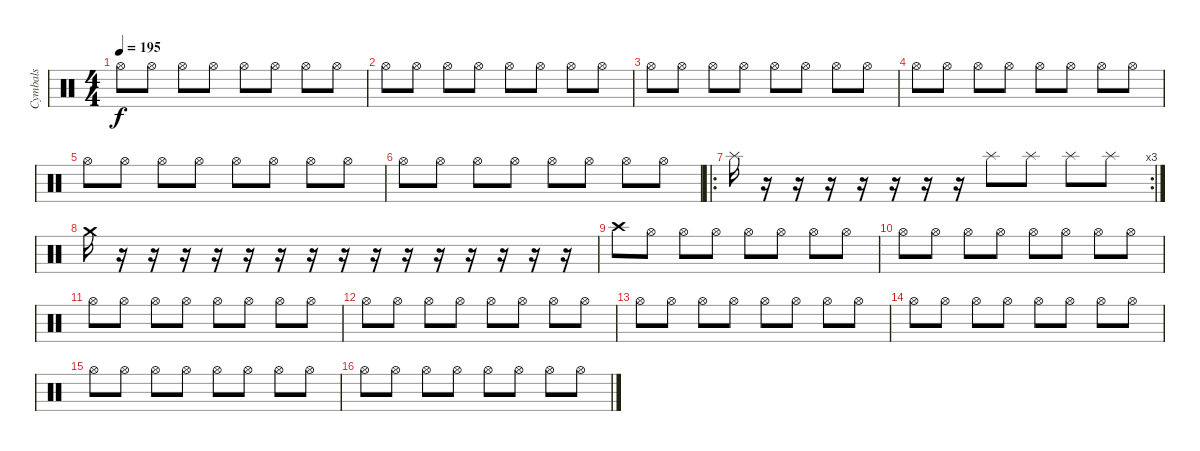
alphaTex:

\track ("Cymbals" "Cymbals") {instrument percussion}
\staff {score}
\articulation defaults
\ts (4 4)
\tempo 195
\clef neutral
\ks c "Hi-Hat (open)".8{dy f} "Hi-Hat (open)".8 "Hi-Hat (open)".8 "Hi-Hat (open)".8 "Hi-Hat (open)".8 "Hi-Hat (open)".8 "Hi-Hat (open)".8 "Hi-Hat (open)".8
|
"Hi-Hat (open)".8 "Hi-Hat (open)".8 "Hi-Hat (open)".8 "Hi-Hat (open)".8 "Hi-Hat (open)".8 "Hi-Hat (open)".8 "Hi-Hat (open)".8 "Hi-Hat (open)".8 |
"Hi-Hat (open)".8 "Hi-Hat (open)".8 "Hi-Hat (open)".8 "Hi-Hat (open)".8 "Hi-Hat (open)".8 "Hi-Hat (open)".8 "Hi-Hat (open)".8 "Hi-Hat (open)".8 |
"Hi-Hat (open)".8 "Hi-Hat (open)".8 "Hi-Hat (open)".8 "Hi-Hat (open)".8 "Hi-Hat (open)".8 "Hi-Hat (open)".8 "Hi-Hat (open)".8 "Hi-Hat (open)".8 |
"Hi-Hat (open)".8 "Hi-Hat (open)".8 "Hi-Hat (open)".8 "Hi-Hat (open)".8 "Hi-Hat (open)".8 "Hi-Hat (open)".8 "Hi-Hat (open)".8 "Hi-Hat (open)".8 |
"Hi-Hat (open)".8 "Hi-Hat (open)".8 "Hi-Hat (open)".8 "Hi-Hat (open)".8 "Hi-Hat (open)".8 "Hi-Hat (open)".8 "Hi-Hat (open)".8 "Hi-Hat (open)".8 |
\ro
\rc 3 "Splash (hit)".16
r.16 r.16 r.16 r.16 r.16 r.16 r.16 "Splash (hit)".8 "Splash (hit)".8 "Splash (hit)".8 "Splash (hit)".8 |
"Crash medium (hit)".16 r.16 r.16 r.16 r.16 r.16 r.16 r.16 r.16 r.16 r.16 r.16 r.16 r.16 r.16 r.16 |
"Crash high (hit)".8 "Hi-Hat (open)".8 "Hi-Hat (open)".8 "Hi-Hat (open)".8 "Hi-Hat (open)".8 "Hi-Hat (open)".8 "Hi-Hat (open)".8 "Hi-Hat (open)".8 |
"Hi-Hat (open)".8 "Hi-Hat (open)".8 "Hi-Hat (open)".8 "Hi-Hat (open)".8 "Hi-Hat (open)".8 "Hi-Hat (open)".8 "Hi-Hat (open)".8 "Hi-Hat (open)".8 |
"Hi-Hat (open)".8 "Hi-Hat (open)".8 "Hi-Hat (open)".8 "Hi-Hat (open)".8 "Hi-Hat (open)".8 "Hi-Hat (open)".8 "Hi-Hat (open)".8 "Hi-Hat (open)".8 |
"Hi-Hat (open)".8 "Hi-Hat (open)".8 "Hi-Hat (open)".8 "Hi-Hat (open)".8 "Hi-Hat (open)".8 "Hi-Hat (open)".8 "Hi-Hat (open)".8 "Hi-Hat (open)".8 |
"Hi-Hat (open)".8 "Hi-Hat (open)".8 "Hi-Hat (open)".8 "Hi-Hat (open)".8 "Hi-Hat (open)".8 "Hi-Hat (open)".8 "Hi-Hat (open)".8 "Hi-Hat (open)".8 |
"Hi-Hat (open)".8 "Hi-Hat (open)".8 "Hi-Hat (open)".8 "Hi-Hat (open)".8 "Hi-Hat (open)".8 "Hi-Hat (open)".8 "Hi-Hat (open)".8 "Hi-Hat (open)".8 |
"Hi-Hat (open)".8 "Hi-Hat (open)".8 "Hi-Hat (open)".8 "Hi-Hat (open)".8 "Hi-Hat (open)".8 "Hi-Hat (open)".8 "Hi-Hat (open)".8 "Hi-Hat (open)".8 |
"Hi-Hat (open)".8 "Hi-Hat (open)".8 "Hi-Hat (open)".8 "Hi-Hat (open)".8 "Hi-Hat (open)".8 "Hi-Hat (open)".8 "Hi-Hat (open)".8 "Hi-Hat (open)".8
